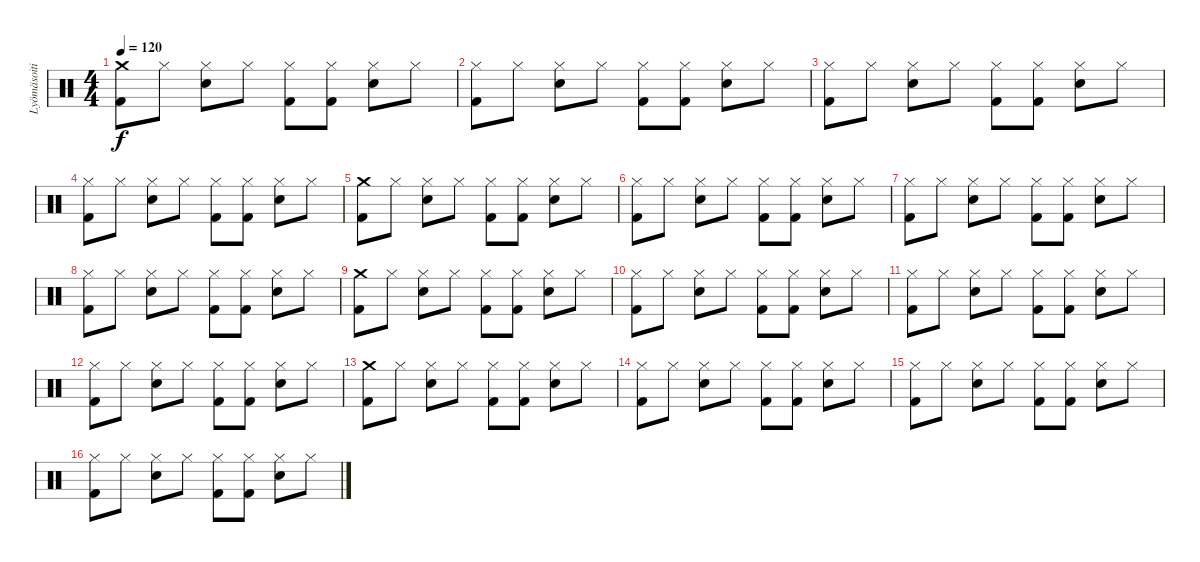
\track ("Lyömäsoitin" "Lyömäsoiti") {instrument percussion}
\staff {score}
\articulation defaults
\ts (4 4)
\tempo 120
\clef neutral
\ks c
("Crash medium (hit)" "Kick (hit) 2").8{dy f} "Hi-Hat (closed)".8 ("Hi-Hat (closed)" "Electric Snare (hit)").8 "Hi-Hat (closed)".8 ("Hi-Hat (closed)" "Kick (hit) 2").8 ("Hi-Hat (closed)" "Kick (hit) 2").8 ("Hi-Hat (closed)" "Electric Snare (hit)").8 "Hi-Hat (closed)".8 |
("Hi-Hat (closed)" "Kick (hit) 2").8 "Hi-Hat (closed)".8 ("Hi-Hat (closed)" "Electric Snare (hit)").8 "Hi-Hat (closed)".8 ("Hi-Hat (closed)" "Kick (hit) 2").8 ("Hi-Hat (closed)" "Kick (hit) 2").8 ("Hi-Hat (closed)" "Electric Snare (hit)").8 "Hi-Hat (closed)".8 |
("Hi-Hat (closed)" "Kick (hit) 2").8 "Hi-Hat (closed)".8 ("Hi-Hat (closed)" "Electric Snare (hit)").8 "Hi-Hat (closed)".8 ("Hi-Hat (closed)" "Kick (hit) 2").8 ("Hi-Hat (closed)" "Kick (hit) 2").8 ("Hi-Hat (closed)" "Electric Snare (hit)").8 "Hi-Hat (closed)".8 |
("Hi-Hat (closed)" "Kick (hit) 2").8 "Hi-Hat (closed)".8 ("Hi-Hat (closed)" "Electric Snare (hit)").8 "Hi-Hat (closed)".8 ("Hi-Hat (closed)" "Kick (hit) 2").8 ("Hi-Hat (closed)" "Kick (hit) 2").8 ("Hi-Hat (closed)" "Electric Snare (hit)").8 "Hi-Hat (closed)".8 |
("Crash medium (hit)" "Kick (hit) 2").8 "Hi-Hat (closed)".8 ("Hi-Hat (closed)" "Electric Snare (hit)").8 "Hi-Hat (closed)".8 ("Hi-Hat (closed)" "Kick (hit) 2").8 ("Hi-Hat (closed)" "Kick (hit) 2").8 ("Hi-Hat (closed)" "Electric Snare (hit)").8 "Hi-Hat (closed)".8 |
("Hi-Hat (closed)" "Kick (hit) 2").8 "Hi-Hat (closed)".8 ("Hi-Hat (closed)" "Electric Snare (hit)").8 "Hi-Hat (closed)".8 ("Hi-Hat (closed)" "Kick (hit) 2").8 ("Hi-Hat (closed)" "Kick (hit) 2").8 ("Hi-Hat (closed)" "Electric Snare (hit)").8 "Hi-Hat (closed)".8 |
("Hi-Hat (closed)" "Kick (hit) 2").8 "Hi-Hat (closed)".8 ("Hi-Hat (closed)" "Electric Snare (hit)").8 "Hi-Hat (closed)".8 ("Hi-Hat (closed)" "Kick (hit) 2").8 ("Hi-Hat (closed)" "Kick (hit) 2").8 ("Hi-Hat (closed)" "Electric Snare (hit)").8 "Hi-Hat (closed)".8 |
("Hi-Hat (closed)" "Kick (hit) 2").8 "Hi-Hat (closed)".8 ("Hi-Hat (closed)" "Electric Snare (hit)").8 "Hi-Hat (closed)".8 ("Hi-Hat (closed)" "Kick (hit) 2").8 ("Hi-Hat (closed)" "Kick (hit) 2").8 ("Hi-Hat (closed)" "Electric Snare (hit)").8 "Hi-Hat (closed)".8 |
("Crash medium (hit)" "Kick (hit) 2").8 "Hi-Hat (closed)".8 ("Hi-Hat (closed)" "Electric Snare (hit)").8 "Hi-Hat (closed)".8 ("Hi-Hat (closed)" "Kick (hit) 2").8 ("Hi-Hat (closed)" "Kick (hit) 2").8 ("Hi-Hat (closed)" "Electric Snare (hit)").8 "Hi-Hat (closed)".8 |
("Hi-Hat (closed)" "Kick (hit) 2").8 "Hi-Hat (closed)".8 ("Hi-Hat (closed)" "Electric Snare (hit)").8 "Hi-Hat (closed)".8 ("Hi-Hat (closed)" "Kick (hit) 2").8 ("Hi-Hat (closed)" "Kick (hit) 2").8 ("Hi-Hat (closed)" "Electric Snare (hit)").8 "Hi-Hat (closed)".8 |
("Hi-Hat (closed)" "Kick (hit) 2").8 "Hi-Hat (closed)".8 ("Hi-Hat (closed)" "Electric Snare (hit)").8 "Hi-Hat (closed)".8 ("Hi-Hat (closed)" "Kick (hit) 2").8 ("Hi-Hat (closed)" "Kick (hit) 2").8 ("Hi-Hat (closed)" "Electric Snare (hit)").8 "Hi-Hat (closed)".8 |
("Hi-Hat (closed)" "Kick (hit) 2").8 "Hi-Hat (closed)".8 ("Hi-Hat (closed)" "Electric Snare (hit)").8 "Hi-Hat (closed)".8 ("Hi-Hat (closed)" "Kick (hit) 2").8 ("Hi-Hat (closed)" "Kick (hit) 2").8 ("Hi-Hat (closed)" "Electric Snare (hit)").8 "Hi-Hat (closed)".8 |
("Crash medium (hit)" "Kick (hit) 2").8 "Hi-Hat (closed)".8 ("Hi-Hat (closed)" "Electric Snare (hit)").8 "Hi-Hat (closed)".8 ("Hi-Hat (closed)" "Kick (hit) 2").8 ("Hi-Hat (closed)" "Kick (hit) 2").8 ("Hi-Hat (closed)" "Electric Snare (hit)").8 "Hi-Hat (closed)".8 |
("Hi-Hat (closed)" "Kick (hit) 2").8 "Hi-Hat (closed)".8 ("Hi-Hat (closed)" "Electric Snare (hit)").8 "Hi-Hat (closed)".8 ("Hi-Hat (closed)" "Kick (hit) 2").8 ("Hi-Hat (closed)" "Kick (hit) 2").8 ("Hi-Hat (closed)" "Electric Snare (hit)").8 "Hi-Hat (closed)".8 |
("Hi-Hat (closed)" "Kick (hit) 2").8 "Hi-Hat (closed)".8 ("Hi-Hat (closed)" "Electric Snare (hit)").8 "Hi-Hat (closed)".8 ("Hi-Hat (closed)" "Kick (hit) 2").8 ("Hi-Hat (closed)" "Kick (hit) 2").8 ("Hi-Hat (closed)" "Electric Snare (hit)").8 "Hi-Hat (closed)".8 |
("Hi-Hat (closed)" "Kick (hit) 2").8 "Hi-Hat (closed)".8 ("Hi-Hat (closed)" "Electric Snare (hit)").8 "Hi-Hat (closed)".8 ("Hi-Hat (closed)" "Kick (hit) 2").8 ("Hi-Hat (closed)" "Kick (hit) 2").8 ("Hi-Hat (closed)" "Electric Snare (hit)").8 "Hi-Hat (closed)".8
